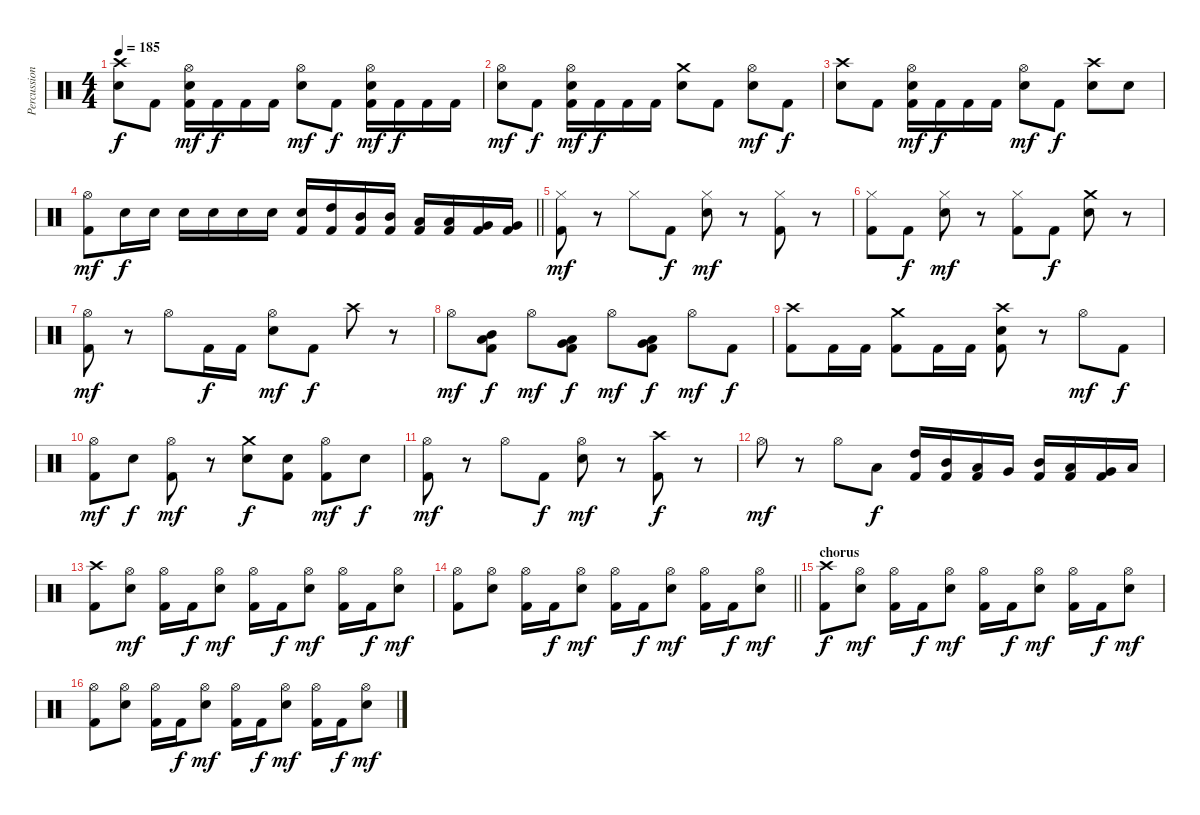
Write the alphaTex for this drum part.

\track ("Percussion" "Percussion") {instrument percussion}
\staff {score}
\articulation defaults
\ts (4 4)
\tempo 185
\clef neutral
\ks c
("Crash high (hit)" "Electric Snare (hit)").8{dy f} "Kick (hit) 2".8 ("Hi-Hat (open)" "Electric Snare (hit)" "Kick (hit) 2").16{dy mf} "Kick (hit) 2".16{dy f} "Kick (hit) 2".16 "Kick (hit) 2".16 ("Hi-Hat (open)" "Electric Snare (hit)").8{dy mf} "Kick (hit) 2".8{dy f} ("Hi-Hat (open)" "Electric Snare (hit)" "Kick (hit) 2").16{dy mf} "Kick (hit) 2".16{dy f} "Kick (hit) 2".16 "Kick (hit) 2".16 |
("Hi-Hat (open)" "Electric Snare (hit)").8{dy mf} "Kick (hit) 2".8{dy f} ("Hi-Hat (open)" "Electric Snare (hit)" "Kick (hit) 2").16{dy mf} "Kick (hit) 2".16{dy f} "Kick (hit) 2".16 "Kick (hit) 2".16 ("Crash medium (hit)" "Electric Snare (hit)").8 "Kick (hit) 2".8 ("Hi-Hat (open)" "Electric Snare (hit)").8{dy mf} "Kick (hit) 2".8{dy f} |
("Crash high (hit)" "Electric Snare (hit)").8 "Kick (hit) 2".8 ("Hi-Hat (open)" "Electric Snare (hit)" "Kick (hit) 2").16{dy mf} "Kick (hit) 2".16{dy f} "Kick (hit) 2".16 "Kick (hit) 2".16 ("Hi-Hat (open)" "Electric Snare (hit)").8{dy mf} "Kick (hit) 2".8{dy f} ("Crash high (hit)" "Electric Snare (hit)").8 "Electric Snare (hit)".8 |
\barLineRight lightlight
("Hi-Hat (open)" "Kick (hit) 2").8{dy mf} "Electric Snare (hit)".16{dy f} "Electric Snare (hit)".16 "Electric Snare (hit)".16 "Electric Snare (hit)".16 "Electric Snare (hit)".16 "Electric Snare (hit)".16 ("Electric Snare (hit)" "Kick (hit) 2").16 ("High Tom (hit)" "Kick (hit) 2").16 ("Mid Tom (hit)" "Kick (hit) 2").16 ("Mid Tom (hit)" "Kick (hit) 2").16 ("Low Tom (hit)" "Kick (hit) 2").16 ("Low Tom (hit)" "Kick (hit) 2").16 ("Very Low Tom (hit)" "Kick (hit) 2").16 ("Very Low Tom (hit)" "Kick (hit) 2").16 |
\section ("" "")
("Hi-Hat (closed)" "Kick (hit) 2").8{dy mf} r.8 "Hi-Hat (closed)".8 "Kick (hit) 2".8{dy f} ("Hi-Hat (closed)" "Electric Snare (hit)").8{dy mf} r.8 ("Hi-Hat (closed)" "Kick (hit) 2").8 r.8 |
("Hi-Hat (closed)" "Kick (hit) 2").8 "Kick (hit) 2".8{dy f} ("Hi-Hat (closed)" "Electric Snare (hit)").8{dy mf} r.8 ("Hi-Hat (closed)" "Kick (hit) 2").8 "Kick (hit) 2".8{dy f} ("Crash medium (hit)" "Electric Snare (hit)").8 r.8 |
("Hi-Hat (open)" "Kick (hit) 2").8{dy mf} r.8 "Hi-Hat (open)".8 "Kick (hit) 2".16{dy f} "Kick (hit) 2".16 ("Hi-Hat (open)" "Electric Snare (hit)").8{dy mf} "Kick (hit) 2".8{dy f} "Crash high (hit)".8 r.8 |
"Hi-Hat (open)".8{dy mf} ("Mid Tom (hit)" "Low Tom (hit)" "Kick (hit) 2").8{dy f} "Hi-Hat (open)".8{dy mf} ("Low Tom (hit)" "Very Low Tom (hit)" "Kick (hit) 2").8{dy f} "Hi-Hat (open)".8{dy mf} ("Very Low Tom (hit)" "Low Floor Tom (hit)" "Kick (hit) 2").8{dy f} "Hi-Hat (open)".8{dy mf} "Kick (hit) 2".8{dy f} |
("Crash high (hit)" "Kick (hit) 2").8 "Kick (hit) 2".16 "Kick (hit) 2".16 ("Crash medium (hit)" "Kick (hit) 2").8 "Kick (hit) 2".16 "Kick (hit) 2".16 ("Crash high (hit)" "Electric Snare (hit)" "Kick (hit) 2").8 r.8 "Hi-Hat (open)".8{dy mf} "Kick (hit) 2".8{dy f} |
("Hi-Hat (open)" "Kick (hit) 2").8{dy mf} "Electric Snare (hit)".8{dy f} ("Hi-Hat (open)" "Kick (hit) 2").8{dy mf} r.8 ("Crash medium (hit)" "Electric Snare (hit)").8{dy f} ("Electric Snare (hit)" "Kick (hit) 2").8 ("Hi-Hat (open)" "Kick (hit) 2").8{dy mf} "Electric Snare (hit)".8{dy f} |
("Hi-Hat (open)" "Kick (hit) 2").8{dy mf} r.8 "Hi-Hat (open)".8 "Kick (hit) 2".8{dy f} ("Hi-Hat (open)" "Electric Snare (hit)").8{dy mf} r.8 ("Crash high (hit)" "Kick (hit) 2").8{dy f} r.8 |
"Hi-Hat (open)".8{dy mf} r.8 "Hi-Hat (open)".8 "Low Tom (hit)".8{dy f} ("High Tom (hit)" "Kick (hit) 2").16 ("Mid Tom (hit)" "Kick (hit) 2").16 ("Low Tom (hit)" "Kick (hit) 2").16 "Very Low Tom (hit)".16 ("Mid Tom (hit)" "Kick (hit) 2").16 ("Low Tom (hit)" "Kick (hit) 2").16 ("Very Low Tom (hit)" "Kick (hit) 2").16 "Low Floor Tom (hit)".16 |
("Crash high (hit)" "Kick (hit) 2").8 ("Hi-Hat (open)" "Electric Snare (hit)").8{dy mf} ("Hi-Hat (open)" "Kick (hit) 2").16 "Kick (hit) 2".16{dy f} ("Hi-Hat (open)" "Electric Snare (hit)").8{dy mf} ("Hi-Hat (open)" "Kick (hit) 2").16 "Kick (hit) 2".16{dy f} ("Hi-Hat (open)" "Electric Snare (hit)").8{dy mf} ("Hi-Hat (open)" "Kick (hit) 2").16 "Kick (hit) 2".16{dy f} ("Hi-Hat (open)" "Electric Snare (hit)").8{dy mf} |
\barLineRight lightlight
("Hi-Hat (open)" "Kick (hit) 2").8 ("Hi-Hat (open)" "Electric Snare (hit)").8 ("Hi-Hat (open)" "Kick (hit) 2").16 "Kick (hit) 2".16{dy f} ("Hi-Hat (open)" "Electric Snare (hit)").8{dy mf} ("Hi-Hat (open)" "Kick (hit) 2").16 "Kick (hit) 2".16{dy f} ("Hi-Hat (open)" "Electric Snare (hit)").8{dy mf} ("Hi-Hat (open)" "Kick (hit) 2").16 "Kick (hit) 2".16{dy f} ("Hi-Hat (open)" "Electric Snare (hit)").8{dy mf} |
\section ("" "chorus")
("Crash high (hit)" "Kick (hit) 2").8{dy f} ("Hi-Hat (open)" "Electric Snare (hit)").8{dy mf} ("Hi-Hat (open)" "Kick (hit) 2").16 "Kick (hit) 2".16{dy f} ("Hi-Hat (open)" "Electric Snare (hit)").8{dy mf} ("Hi-Hat (open)" "Kick (hit) 2").16 "Kick (hit) 2".16{dy f} ("Hi-Hat (open)" "Electric Snare (hit)").8{dy mf} ("Hi-Hat (open)" "Kick (hit) 2").16 "Kick (hit) 2".16{dy f} ("Hi-Hat (open)" "Electric Snare (hit)").8{dy mf} |
("Hi-Hat (open)" "Kick (hit) 2").8 ("Hi-Hat (open)" "Electric Snare (hit)").8 ("Hi-Hat (open)" "Kick (hit) 2").16 "Kick (hit) 2".16{dy f} ("Hi-Hat (open)" "Electric Snare (hit)").8{dy mf} ("Hi-Hat (open)" "Kick (hit) 2").16 "Kick (hit) 2".16{dy f} ("Hi-Hat (open)" "Electric Snare (hit)").8{dy mf} ("Hi-Hat (open)" "Kick (hit) 2").16 "Kick (hit) 2".16{dy f} ("Hi-Hat (open)" "Electric Snare (hit)").8{dy mf}
